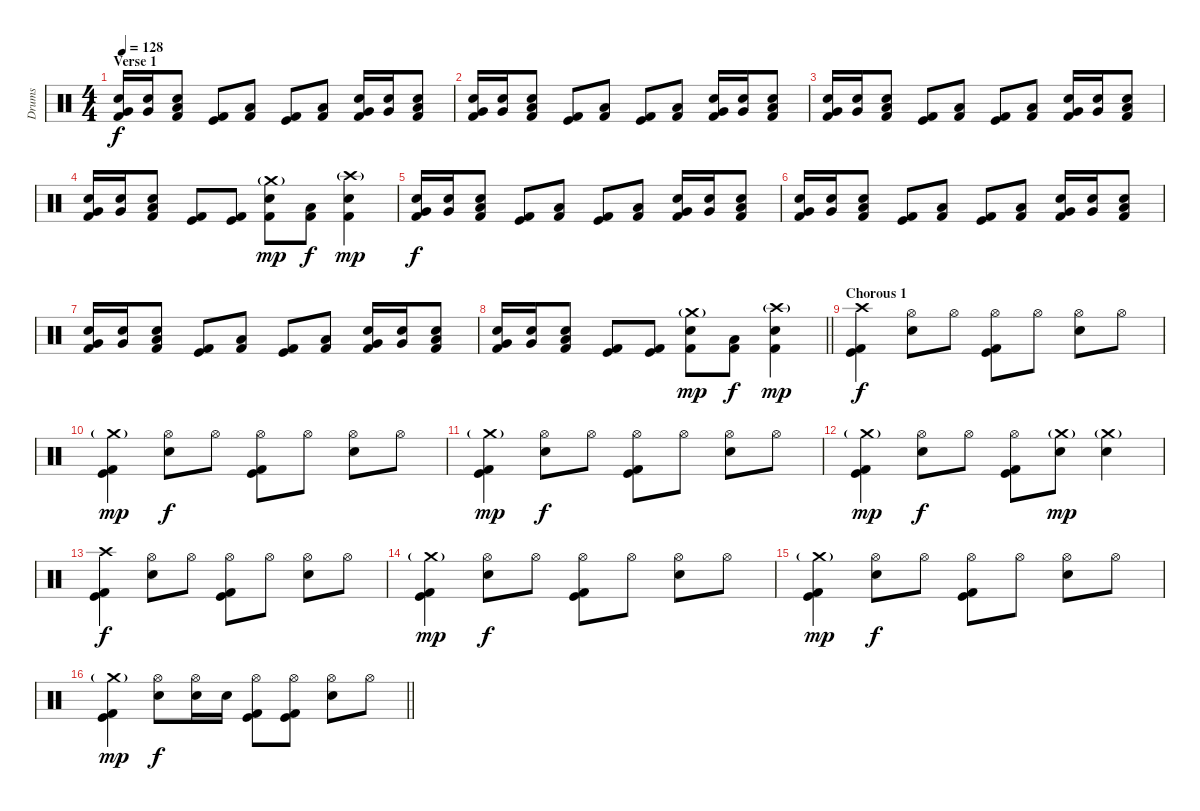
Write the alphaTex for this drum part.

\track ("Drums" "Drums") {instrument percussion}
\staff {score}
\articulation defaults
\ts (4 4)
\section ("" "Verse 1")
\tempo 128
\clef neutral
\ks c
("Kick (hit) 2" "Electric Snare (hit)" "Very Low Tom (hit)").16{dy f} ("Electric Snare (hit)" "Very Low Tom (hit)").16 ("Kick (hit) 2" "Electric Snare (hit)" "Low Floor Tom (hit)").8 ("Kick (hit) 2" "Kick (hit)").8 ("Kick (hit) 2" "Low Floor Tom (hit)").8 ("Kick (hit) 2" "Kick (hit)").8 ("Kick (hit) 2" "Low Floor Tom (hit)").8 ("Kick (hit) 2" "Electric Snare (hit)" "Very Low Tom (hit)").16 ("Electric Snare (hit)" "Very Low Tom (hit)").16 ("Kick (hit) 2" "Electric Snare (hit)" "Low Floor Tom (hit)").8 |
("Kick (hit) 2" "Electric Snare (hit)" "Very Low Tom (hit)").16 ("Electric Snare (hit)" "Very Low Tom (hit)").16 ("Kick (hit) 2" "Electric Snare (hit)" "Low Floor Tom (hit)").8 ("Kick (hit) 2" "Kick (hit)").8 ("Kick (hit) 2" "Low Floor Tom (hit)").8 ("Kick (hit) 2" "Kick (hit)").8 ("Kick (hit) 2" "Low Floor Tom (hit)").8 ("Kick (hit) 2" "Electric Snare (hit)" "Very Low Tom (hit)").16 ("Electric Snare (hit)" "Very Low Tom (hit)").16 ("Kick (hit) 2" "Electric Snare (hit)" "Low Floor Tom (hit)").8 |
("Kick (hit) 2" "Electric Snare (hit)" "Very Low Tom (hit)").16 ("Electric Snare (hit)" "Very Low Tom (hit)").16 ("Kick (hit) 2" "Electric Snare (hit)" "Low Floor Tom (hit)").8 ("Kick (hit) 2" "Kick (hit)").8 ("Kick (hit) 2" "Low Floor Tom (hit)").8 ("Kick (hit) 2" "Kick (hit)").8 ("Kick (hit) 2" "Low Floor Tom (hit)").8 ("Kick (hit) 2" "Electric Snare (hit)" "Very Low Tom (hit)").16 ("Electric Snare (hit)" "Very Low Tom (hit)").16 ("Kick (hit) 2" "Electric Snare (hit)" "Low Floor Tom (hit)").8 |
("Kick (hit) 2" "Electric Snare (hit)" "Very Low Tom (hit)").16 ("Electric Snare (hit)" "Very Low Tom (hit)").16 ("Kick (hit) 2" "Electric Snare (hit)" "Low Floor Tom (hit)").8 ("Kick (hit) 2" "Kick (hit)").8 ("Kick (hit) 2" "Kick (hit)").8 ("Crash medium (hit)"{g} "Kick (hit) 2" "Electric Snare (hit)").8{dy mp} ("Kick (hit) 2" "Low Floor Tom (hit)").8{dy f} ("Crash high (hit)"{g} "Kick (hit) 2" "Electric Snare (hit)").4{dy mp} |
("Kick (hit) 2" "Electric Snare (hit)" "Very Low Tom (hit)").16{dy f} ("Electric Snare (hit)" "Very Low Tom (hit)").16 ("Kick (hit) 2" "Electric Snare (hit)" "Low Floor Tom (hit)").8 ("Kick (hit) 2" "Kick (hit)").8 ("Kick (hit) 2" "Low Floor Tom (hit)").8 ("Kick (hit) 2" "Kick (hit)").8 ("Kick (hit) 2" "Low Floor Tom (hit)").8 ("Kick (hit) 2" "Electric Snare (hit)" "Very Low Tom (hit)").16 ("Electric Snare (hit)" "Very Low Tom (hit)").16 ("Kick (hit) 2" "Electric Snare (hit)" "Low Floor Tom (hit)").8 |
("Kick (hit) 2" "Electric Snare (hit)" "Very Low Tom (hit)").16 ("Electric Snare (hit)" "Very Low Tom (hit)").16 ("Kick (hit) 2" "Electric Snare (hit)" "Low Floor Tom (hit)").8 ("Kick (hit) 2" "Kick (hit)").8 ("Kick (hit) 2" "Low Floor Tom (hit)").8 ("Kick (hit) 2" "Kick (hit)").8 ("Kick (hit) 2" "Low Floor Tom (hit)").8 ("Kick (hit) 2" "Electric Snare (hit)" "Very Low Tom (hit)").16 ("Electric Snare (hit)" "Very Low Tom (hit)").16 ("Kick (hit) 2" "Electric Snare (hit)" "Low Floor Tom (hit)").8 |
("Kick (hit) 2" "Electric Snare (hit)" "Very Low Tom (hit)").16 ("Electric Snare (hit)" "Very Low Tom (hit)").16 ("Kick (hit) 2" "Electric Snare (hit)" "Low Floor Tom (hit)").8 ("Kick (hit) 2" "Kick (hit)").8 ("Kick (hit) 2" "Low Floor Tom (hit)").8 ("Kick (hit) 2" "Kick (hit)").8 ("Kick (hit) 2" "Low Floor Tom (hit)").8 ("Kick (hit) 2" "Electric Snare (hit)" "Very Low Tom (hit)").16 ("Electric Snare (hit)" "Very Low Tom (hit)").16 ("Kick (hit) 2" "Electric Snare (hit)" "Low Floor Tom (hit)").8 |
\barLineRight lightlight
("Kick (hit) 2" "Electric Snare (hit)" "Very Low Tom (hit)").16 ("Electric Snare (hit)" "Very Low Tom (hit)").16 ("Kick (hit) 2" "Electric Snare (hit)" "Low Floor Tom (hit)").8 ("Kick (hit) 2" "Kick (hit)").8 ("Kick (hit) 2" "Kick (hit)").8 ("Crash medium (hit)"{g} "Kick (hit) 2" "Electric Snare (hit)").8{dy mp} ("Kick (hit) 2" "Low Floor Tom (hit)").8{dy f} ("Crash high (hit)"{g} "Kick (hit) 2" "Electric Snare (hit)").4{dy mp} |
\section ("" "Chorous 1")
("Crash high (hit)" "Kick (hit)" "Kick (hit) 2").4{dy f} ("Hi-Hat (open)" "Electric Snare (hit)").8 "Hi-Hat (open)".8 ("Hi-Hat (open)" "Kick (hit)" "Kick (hit) 2").8 "Hi-Hat (open)".8 ("Hi-Hat (open)" "Electric Snare (hit)").8 "Hi-Hat (open)".8 |
("Crash medium (hit)"{g} "Kick (hit)" "Kick (hit) 2").4{dy mp} ("Hi-Hat (open)" "Electric Snare (hit)").8{dy f} "Hi-Hat (open)".8 ("Hi-Hat (open)" "Kick (hit)" "Kick (hit) 2").8 "Hi-Hat (open)".8 ("Hi-Hat (open)" "Electric Snare (hit)").8 "Hi-Hat (open)".8 |
("Crash medium (hit)"{g} "Kick (hit)" "Kick (hit) 2").4{dy mp} ("Hi-Hat (open)" "Electric Snare (hit)").8{dy f} "Hi-Hat (open)".8 ("Hi-Hat (open)" "Kick (hit)" "Kick (hit) 2").8 "Hi-Hat (open)".8 ("Hi-Hat (open)" "Electric Snare (hit)").8 "Hi-Hat (open)".8 |
("Crash medium (hit)"{g} "Kick (hit)" "Kick (hit) 2").4{dy mp} ("Hi-Hat (open)" "Electric Snare (hit)").8{dy f} "Hi-Hat (open)".8 ("Hi-Hat (open)" "Kick (hit)" "Kick (hit) 2").8 ("Crash medium (hit)"{g} "Electric Snare (hit)").8{dy mp} ("Crash medium (hit)"{g} "Electric Snare (hit)").4 |
("Crash high (hit)" "Kick (hit)" "Kick (hit) 2").4{dy f} ("Hi-Hat (open)" "Electric Snare (hit)").8 "Hi-Hat (open)".8 ("Hi-Hat (open)" "Kick (hit)" "Kick (hit) 2").8 "Hi-Hat (open)".8 ("Hi-Hat (open)" "Electric Snare (hit)").8 "Hi-Hat (open)".8 |
("Crash medium (hit)"{g} "Kick (hit)" "Kick (hit) 2").4{dy mp} ("Hi-Hat (open)" "Electric Snare (hit)").8{dy f} "Hi-Hat (open)".8 ("Hi-Hat (open)" "Kick (hit)" "Kick (hit) 2").8 "Hi-Hat (open)".8 ("Hi-Hat (open)" "Electric Snare (hit)").8 "Hi-Hat (open)".8 |
("Crash medium (hit)"{g} "Kick (hit)" "Kick (hit) 2").4{dy mp} ("Hi-Hat (open)" "Electric Snare (hit)").8{dy f} "Hi-Hat (open)".8 ("Hi-Hat (open)" "Kick (hit)" "Kick (hit) 2").8 "Hi-Hat (open)".8 ("Hi-Hat (open)" "Electric Snare (hit)").8 "Hi-Hat (open)".8 |
\barLineRight lightlight
("Crash medium (hit)"{g} "Kick (hit)" "Kick (hit) 2").4{dy mp} ("Hi-Hat (open)" "Electric Snare (hit)").8{dy f} ("Hi-Hat (open)" "Electric Snare (hit)").16 "Electric Snare (hit)".16 ("Hi-Hat (open)" "Kick (hit)" "Kick (hit) 2").8 ("Hi-Hat (open)" "Kick (hit)" "Kick (hit) 2").8 ("Hi-Hat (open)" "Electric Snare (hit)").8 "Hi-Hat (open)".8
